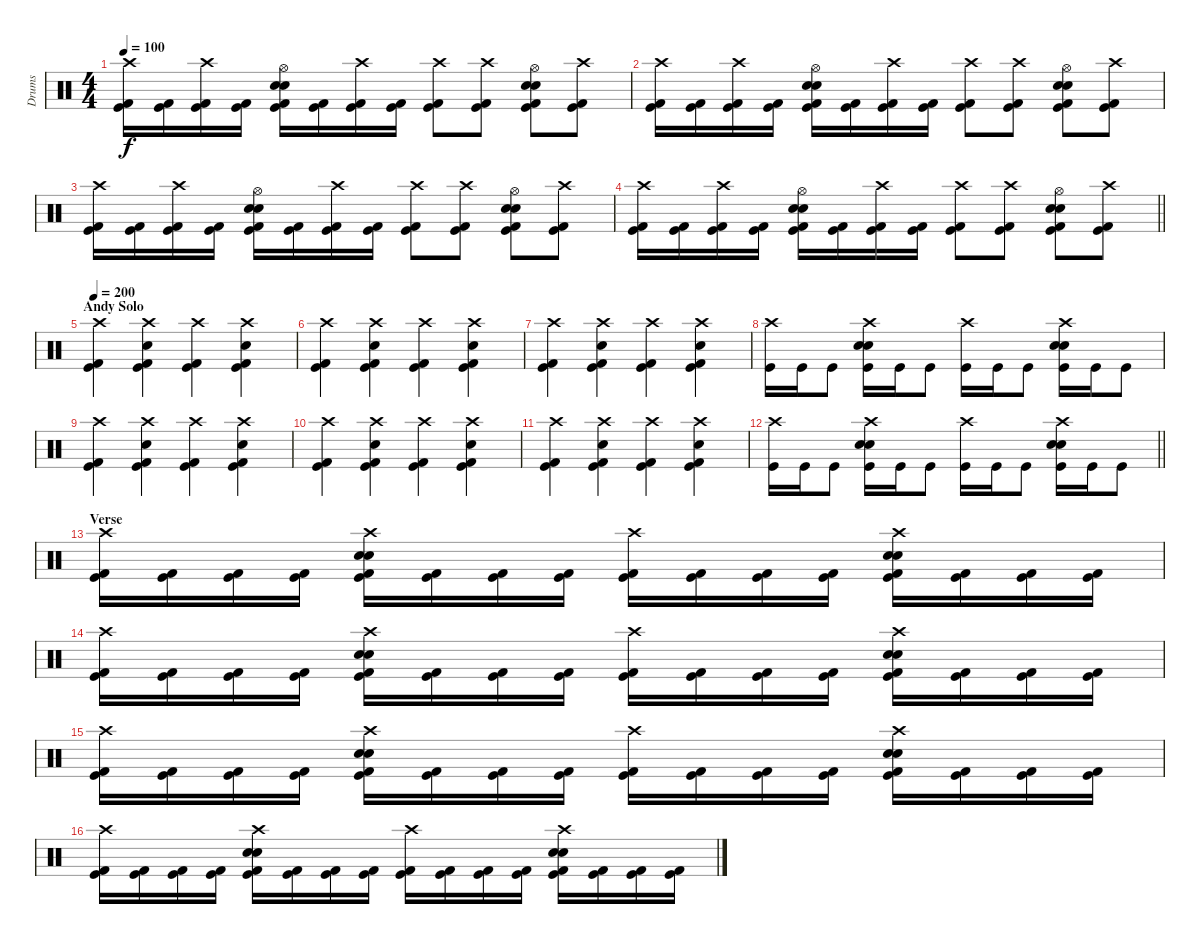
\track ("Drums" "Drums") {instrument percussion}
\staff {score}
\articulation defaults
\ts (4 4)
\tempo 100
\clef neutral
\ks c
("Crash high (hit)" "Kick (hit) 2" "Kick (hit)").16{dy f} ("Kick (hit) 2" "Kick (hit)").16 ("Crash high (hit)" "Kick (hit) 2" "Kick (hit)").16 ("Kick (hit) 2" "Kick (hit)").16 ("Hi-Hat (open)" "Electric Snare (hit)" "Electric Snare (hit)" "Kick (hit) 2" "Kick (hit)").16 ("Kick (hit) 2" "Kick (hit)").16 ("Crash high (hit)" "Kick (hit) 2" "Kick (hit)").16 ("Kick (hit) 2" "Kick (hit)").16 ("Crash high (hit)" "Kick (hit) 2" "Kick (hit)").8 ("Crash high (hit)" "Kick (hit) 2" "Kick (hit)").8 ("Hi-Hat (open)" "Electric Snare (hit)" "Electric Snare (hit)" "Kick (hit) 2" "Kick (hit)").8 ("Crash high (hit)" "Kick (hit) 2" "Kick (hit)").8 |
("Crash high (hit)" "Kick (hit) 2" "Kick (hit)").16 ("Kick (hit) 2" "Kick (hit)").16 ("Crash high (hit)" "Kick (hit) 2" "Kick (hit)").16 ("Kick (hit) 2" "Kick (hit)").16 ("Hi-Hat (open)" "Electric Snare (hit)" "Electric Snare (hit)" "Kick (hit) 2" "Kick (hit)").16 ("Kick (hit) 2" "Kick (hit)").16 ("Crash high (hit)" "Kick (hit) 2" "Kick (hit)").16 ("Kick (hit) 2" "Kick (hit)").16 ("Crash high (hit)" "Kick (hit) 2" "Kick (hit)").8 ("Crash high (hit)" "Kick (hit) 2" "Kick (hit)").8 ("Hi-Hat (open)" "Electric Snare (hit)" "Electric Snare (hit)" "Kick (hit) 2" "Kick (hit)").8 ("Crash high (hit)" "Kick (hit) 2" "Kick (hit)").8 |
("Crash high (hit)" "Kick (hit) 2" "Kick (hit)").16 ("Kick (hit) 2" "Kick (hit)").16 ("Crash high (hit)" "Kick (hit) 2" "Kick (hit)").16 ("Kick (hit) 2" "Kick (hit)").16 ("Hi-Hat (open)" "Electric Snare (hit)" "Electric Snare (hit)" "Kick (hit) 2" "Kick (hit)").16 ("Kick (hit) 2" "Kick (hit)").16 ("Crash high (hit)" "Kick (hit) 2" "Kick (hit)").16 ("Kick (hit) 2" "Kick (hit)").16 ("Crash high (hit)" "Kick (hit) 2" "Kick (hit)").8 ("Crash high (hit)" "Kick (hit) 2" "Kick (hit)").8 ("Hi-Hat (open)" "Electric Snare (hit)" "Electric Snare (hit)" "Kick (hit) 2" "Kick (hit)").8 ("Crash high (hit)" "Kick (hit) 2" "Kick (hit)").8 |
\barLineRight lightlight
("Crash high (hit)" "Kick (hit) 2" "Kick (hit)").16 ("Kick (hit) 2" "Kick (hit)").16 ("Crash high (hit)" "Kick (hit) 2" "Kick (hit)").16 ("Kick (hit) 2" "Kick (hit)").16 ("Hi-Hat (open)" "Electric Snare (hit)" "Electric Snare (hit)" "Kick (hit) 2" "Kick (hit)").16 ("Kick (hit) 2" "Kick (hit)").16 ("Crash high (hit)" "Kick (hit) 2" "Kick (hit)").16 ("Kick (hit) 2" "Kick (hit)").16 ("Crash high (hit)" "Kick (hit) 2" "Kick (hit)").8 ("Crash high (hit)" "Kick (hit) 2" "Kick (hit)").8 ("Hi-Hat (open)" "Electric Snare (hit)" "Electric Snare (hit)" "Kick (hit) 2" "Kick (hit)").8 ("Crash high (hit)" "Kick (hit) 2" "Kick (hit)").8 |
\section ("" "Andy Solo")
\tempo 200
("Crash high (hit)" "Kick (hit) 2" "Kick (hit)").4 ("Crash high (hit)" "Electric Snare (hit)" "Kick (hit) 2" "Kick (hit)").4 ("Crash high (hit)" "Kick (hit) 2" "Kick (hit)").4 ("Crash high (hit)" "Electric Snare (hit)" "Kick (hit) 2" "Kick (hit)").4 |
("Crash high (hit)" "Kick (hit) 2" "Kick (hit)").4 ("Crash high (hit)" "Electric Snare (hit)" "Kick (hit) 2" "Kick (hit)").4 ("Crash high (hit)" "Kick (hit) 2" "Kick (hit)").4 ("Crash high (hit)" "Electric Snare (hit)" "Kick (hit) 2" "Kick (hit)").4 |
("Crash high (hit)" "Kick (hit) 2" "Kick (hit)").4 ("Crash high (hit)" "Electric Snare (hit)" "Kick (hit) 2" "Kick (hit)").4 ("Crash high (hit)" "Kick (hit) 2" "Kick (hit)").4 ("Crash high (hit)" "Electric Snare (hit)" "Kick (hit) 2" "Kick (hit)").4 |
("Crash high (hit)" "Kick (hit)").16 "Kick (hit)".16 "Kick (hit)".8 ("Crash high (hit)" "Electric Snare (hit)" "Electric Snare (hit)" "Kick (hit)").16 "Kick (hit)".16 "Kick (hit)".8 ("Crash high (hit)" "Kick (hit)").16 "Kick (hit)".16 "Kick (hit)".8 ("Crash high (hit)" "Electric Snare (hit)" "Electric Snare (hit)" "Kick (hit)").16 "Kick (hit)".16 "Kick (hit)".8 |
("Crash high (hit)" "Kick (hit) 2" "Kick (hit)").4 ("Crash high (hit)" "Electric Snare (hit)" "Kick (hit) 2" "Kick (hit)").4 ("Crash high (hit)" "Kick (hit) 2" "Kick (hit)").4 ("Crash high (hit)" "Electric Snare (hit)" "Kick (hit) 2" "Kick (hit)").4 |
("Crash high (hit)" "Kick (hit) 2" "Kick (hit)").4 ("Crash high (hit)" "Electric Snare (hit)" "Kick (hit) 2" "Kick (hit)").4 ("Crash high (hit)" "Kick (hit) 2" "Kick (hit)").4 ("Crash high (hit)" "Electric Snare (hit)" "Kick (hit) 2" "Kick (hit)").4 |
("Crash high (hit)" "Kick (hit) 2" "Kick (hit)").4 ("Crash high (hit)" "Electric Snare (hit)" "Kick (hit) 2" "Kick (hit)").4 ("Crash high (hit)" "Kick (hit) 2" "Kick (hit)").4 ("Crash high (hit)" "Electric Snare (hit)" "Kick (hit) 2" "Kick (hit)").4 |
\barLineRight lightlight
("Crash high (hit)" "Kick (hit)").16 "Kick (hit)".16 "Kick (hit)".8 ("Crash high (hit)" "Electric Snare (hit)" "Electric Snare (hit)" "Kick (hit)").16 "Kick (hit)".16 "Kick (hit)".8 ("Crash high (hit)" "Kick (hit)").16 "Kick (hit)".16 "Kick (hit)".8 ("Crash high (hit)" "Electric Snare (hit)" "Electric Snare (hit)" "Kick (hit)").16 "Kick (hit)".16 "Kick (hit)".8 |
\section ("" "Verse")
("Crash high (hit)" "Kick (hit) 2" "Kick (hit)").16 ("Kick (hit) 2" "Kick (hit)").16 ("Kick (hit) 2" "Kick (hit)").16 ("Kick (hit) 2" "Kick (hit)").16 ("Crash high (hit)" "Electric Snare (hit)" "Electric Snare (hit)" "Kick (hit) 2" "Kick (hit)").16 ("Kick (hit) 2" "Kick (hit)").16 ("Kick (hit) 2" "Kick (hit)").16 ("Kick (hit) 2" "Kick (hit)").16 ("Crash high (hit)" "Kick (hit) 2" "Kick (hit)").16 ("Kick (hit) 2" "Kick (hit)").16 ("Kick (hit) 2" "Kick (hit)").16 ("Kick (hit) 2" "Kick (hit)").16 ("Crash high (hit)" "Electric Snare (hit)" "Electric Snare (hit)" "Kick (hit) 2" "Kick (hit)").16 ("Kick (hit) 2" "Kick (hit)").16 ("Kick (hit) 2" "Kick (hit)").16 ("Kick (hit) 2" "Kick (hit)").16 |
("Crash high (hit)" "Kick (hit) 2" "Kick (hit)").16 ("Kick (hit) 2" "Kick (hit)").16 ("Kick (hit) 2" "Kick (hit)").16 ("Kick (hit) 2" "Kick (hit)").16 ("Crash high (hit)" "Electric Snare (hit)" "Electric Snare (hit)" "Kick (hit) 2" "Kick (hit)").16 ("Kick (hit) 2" "Kick (hit)").16 ("Kick (hit) 2" "Kick (hit)").16 ("Kick (hit) 2" "Kick (hit)").16 ("Crash high (hit)" "Kick (hit) 2" "Kick (hit)").16 ("Kick (hit) 2" "Kick (hit)").16 ("Kick (hit) 2" "Kick (hit)").16 ("Kick (hit) 2" "Kick (hit)").16 ("Crash high (hit)" "Electric Snare (hit)" "Electric Snare (hit)" "Kick (hit) 2" "Kick (hit)").16 ("Kick (hit) 2" "Kick (hit)").16 ("Kick (hit) 2" "Kick (hit)").16 ("Kick (hit) 2" "Kick (hit)").16 |
("Crash high (hit)" "Kick (hit) 2" "Kick (hit)").16 ("Kick (hit) 2" "Kick (hit)").16 ("Kick (hit) 2" "Kick (hit)").16 ("Kick (hit) 2" "Kick (hit)").16 ("Crash high (hit)" "Electric Snare (hit)" "Electric Snare (hit)" "Kick (hit) 2" "Kick (hit)").16 ("Kick (hit) 2" "Kick (hit)").16 ("Kick (hit) 2" "Kick (hit)").16 ("Kick (hit) 2" "Kick (hit)").16 ("Crash high (hit)" "Kick (hit) 2" "Kick (hit)").16 ("Kick (hit) 2" "Kick (hit)").16 ("Kick (hit) 2" "Kick (hit)").16 ("Kick (hit) 2" "Kick (hit)").16 ("Crash high (hit)" "Electric Snare (hit)" "Electric Snare (hit)" "Kick (hit) 2" "Kick (hit)").16 ("Kick (hit) 2" "Kick (hit)").16 ("Kick (hit) 2" "Kick (hit)").16 ("Kick (hit) 2" "Kick (hit)").16 |
("Crash high (hit)" "Kick (hit) 2" "Kick (hit)").16 ("Kick (hit) 2" "Kick (hit)").16 ("Kick (hit) 2" "Kick (hit)").16 ("Kick (hit) 2" "Kick (hit)").16 ("Crash high (hit)" "Electric Snare (hit)" "Electric Snare (hit)" "Kick (hit) 2" "Kick (hit)").16 ("Kick (hit) 2" "Kick (hit)").16 ("Kick (hit) 2" "Kick (hit)").16 ("Kick (hit) 2" "Kick (hit)").16 ("Crash high (hit)" "Kick (hit) 2" "Kick (hit)").16 ("Kick (hit) 2" "Kick (hit)").16 ("Kick (hit) 2" "Kick (hit)").16 ("Kick (hit) 2" "Kick (hit)").16 ("Crash high (hit)" "Electric Snare (hit)" "Electric Snare (hit)" "Kick (hit) 2" "Kick (hit)").16 ("Kick (hit) 2" "Kick (hit)").16 ("Kick (hit) 2" "Kick (hit)").16 ("Kick (hit) 2" "Kick (hit)").16
